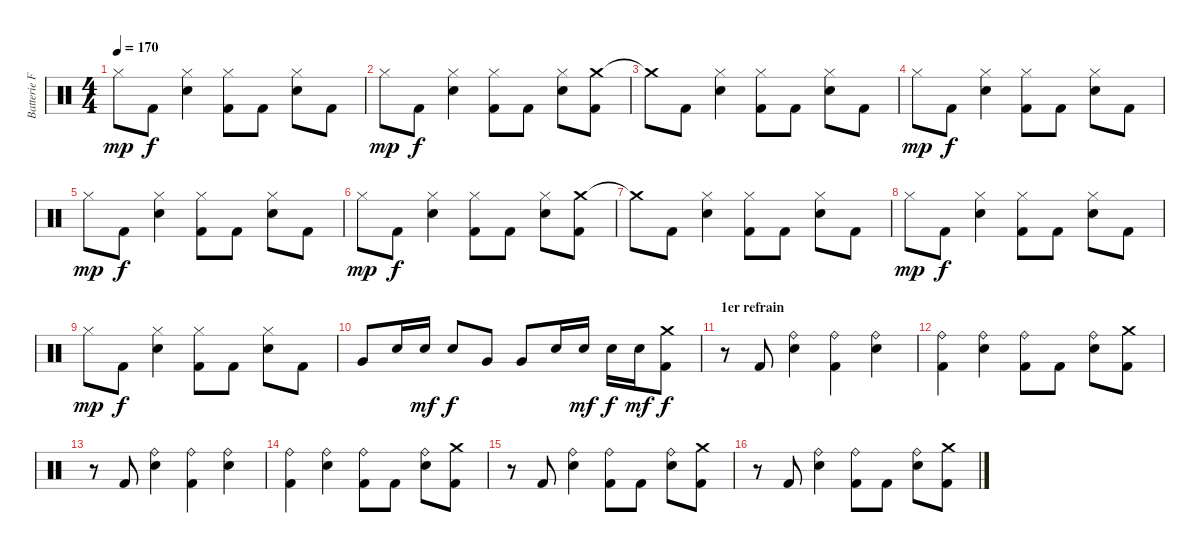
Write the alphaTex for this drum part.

\track ("Batterie Franck" "Batterie F") {instrument percussion}
\staff {score}
\articulation defaults
\ts (4 4)
\tempo 170
\clef neutral
\ks c "Hi-Hat (closed)".8{dy mp} "Kick (hit) 2".8{dy f}
("Hi-Hat (closed)" "Snare (hit) 2").4 ("Hi-Hat (closed)" "Kick (hit) 2").8 "Kick (hit) 2".8 ("Hi-Hat (closed)" "Snare (hit) 2").8 "Kick (hit) 2".8 |
"Hi-Hat (closed)".8{dy mp} "Kick (hit) 2".8{dy f} ("Hi-Hat (closed)" "Snare (hit) 2").4 ("Hi-Hat (closed)" "Kick (hit) 2").8 "Kick (hit) 2".8 ("Hi-Hat (closed)" "Snare (hit) 2").8 ("Crash medium (hit)" "Kick (hit) 2").8 |
"Crash medium (hit)"{t}.8 "Kick (hit) 2".8 ("Hi-Hat (closed)" "Snare (hit) 2").4 ("Hi-Hat (closed)" "Kick (hit) 2").8 "Kick (hit) 2".8 ("Hi-Hat (closed)" "Snare (hit) 2").8 "Kick (hit) 2".8 |
"Hi-Hat (closed)".8{dy mp} "Kick (hit) 2".8{dy f} ("Hi-Hat (closed)" "Snare (hit) 2").4 ("Hi-Hat (closed)" "Kick (hit) 2").8 "Kick (hit) 2".8 ("Hi-Hat (closed)" "Snare (hit) 2").8 "Kick (hit) 2".8 |
"Hi-Hat (closed)".8{dy mp} "Kick (hit) 2".8{dy f} ("Hi-Hat (closed)" "Snare (hit) 2").4 ("Hi-Hat (closed)" "Kick (hit) 2").8 "Kick (hit) 2".8 ("Hi-Hat (closed)" "Snare (hit) 2").8 "Kick (hit) 2".8 |
"Hi-Hat (closed)".8{dy mp} "Kick (hit) 2".8{dy f} ("Hi-Hat (closed)" "Snare (hit) 2").4 ("Hi-Hat (closed)" "Kick (hit) 2").8 "Kick (hit) 2".8 ("Hi-Hat (closed)" "Snare (hit) 2").8 ("Crash medium (hit)" "Kick (hit) 2").8 |
"Crash medium (hit)"{t}.8 "Kick (hit) 2".8 ("Hi-Hat (closed)" "Snare (hit) 2").4 ("Hi-Hat (closed)" "Kick (hit) 2").8 "Kick (hit) 2".8 ("Hi-Hat (closed)" "Snare (hit) 2").8 "Kick (hit) 2".8 |
"Hi-Hat (closed)".8{dy mp} "Kick (hit) 2".8{dy f} ("Hi-Hat (closed)" "Snare (hit) 2").4 ("Hi-Hat (closed)" "Kick (hit) 2").8 "Kick (hit) 2".8 ("Hi-Hat (closed)" "Snare (hit) 2").8 "Kick (hit) 2".8 |
"Hi-Hat (closed)".8{dy mp} "Kick (hit) 2".8{dy f} ("Hi-Hat (closed)" "Snare (hit) 2").4 ("Hi-Hat (closed)" "Kick (hit) 2").8 "Kick (hit) 2".8 ("Hi-Hat (closed)" "Snare (hit) 2").8 "Kick (hit) 2".8 |
"Very Low Tom (hit)".8 "Snare (hit) 2".16 "Snare (hit) 2".16{dy mf} "Snare (hit) 2".8{dy f} "Very Low Tom (hit)".8 "Very Low Tom (hit)".8 "Snare (hit) 2".16 "Snare (hit) 2".16{dy mf} "Snare (hit) 2".16{dy f} "Snare (hit) 2".16{dy mf} ("Crash medium (hit)" "Kick (hit) 2").8{dy f} |
\section ("" "1er refrain")
r.8 "Kick (hit) 2".8 ("Ride (bell)" "Snare (hit) 2").4 ("Ride (bell)" "Kick (hit) 2").4 ("Ride (bell)" "Snare (hit) 2").4 |
("Ride (bell)" "Kick (hit) 2").4 ("Ride (bell)" "Snare (hit) 2").4 ("Ride (bell)" "Kick (hit) 2").8 "Kick (hit) 2".8 ("Ride (bell)" "Snare (hit) 2").8 ("Crash medium (hit)" "Kick (hit) 2").8 |
r.8 "Kick (hit) 2".8 ("Ride (bell)" "Snare (hit) 2").4 ("Ride (bell)" "Kick (hit) 2").4 ("Ride (bell)" "Snare (hit) 2").4 |
("Ride (bell)" "Kick (hit) 2").4 ("Ride (bell)" "Snare (hit) 2").4 ("Ride (bell)" "Kick (hit) 2").8 "Kick (hit) 2".8 ("Ride (bell)" "Snare (hit) 2").8 ("Crash medium (hit)" "Kick (hit) 2").8 |
r.8 "Kick (hit) 2".8 ("Ride (bell)" "Snare (hit) 2").4 ("Ride (bell)" "Kick (hit) 2").8 "Kick (hit) 2".8 ("Ride (bell)" "Snare (hit) 2").8 ("Crash medium (hit)" "Kick (hit) 2").8 |
r.8 "Kick (hit) 2".8 ("Ride (bell)" "Snare (hit) 2").4 ("Ride (bell)" "Kick (hit) 2").8 "Kick (hit) 2".8 ("Ride (bell)" "Snare (hit) 2").8 ("Crash medium (hit)" "Kick (hit) 2").8
